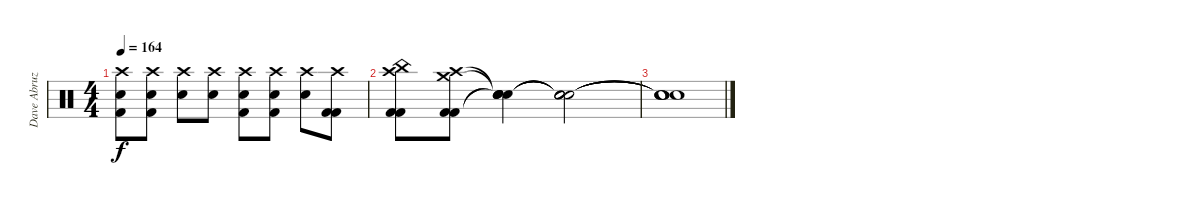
\track ("Dave Abruzzese" "Dave Abruz") {instrument percussion}
\staff {score}
\articulation defaults
\ts (4 4)
\tempo 164
\clef neutral
\ks c
("Electric Snare (hit)" "Kick (hit) 2" "Crash high (hit)").8{dy f} ("Electric Snare (hit)" "Kick (hit) 2" "Crash high (hit)").8 ("Electric Snare (hit)" "Crash high (hit)").8 ("Electric Snare (hit)" "Crash high (hit)").8 ("Electric Snare (hit)" "Kick (hit) 2" "Crash high (hit)").8 ("Electric Snare (hit)" "Kick (hit) 2" "Crash high (hit)").8 ("Electric Snare (hit)" "Crash high (hit)").8 ("Kick (hit) 2" "Kick (hit) 2" "Crash high (hit)").8 |
("China (hit)" "Kick (hit) 2" "Kick (hit) 2" "Crash high (hit)").8 ("Crash medium (hit)" "Kick (hit) 2" "Kick (hit) 2" "Crash high (hit)").8 ("Snare (hit)"{t} "Snare (hit)"{t} "Snare (hit)"{t} "Snare (hit)"{t}).4 ("Snare (hit)"{t} "Snare (hit)"{t} "Snare (hit)"{t} "Snare (hit)"{t}).2 |
("Snare (hit)"{t} "Snare (hit)"{t} "Snare (hit)"{t} "Snare (hit)"{t}).1
